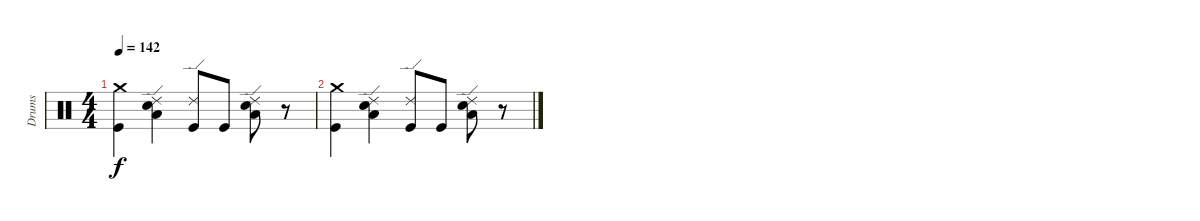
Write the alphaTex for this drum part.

\track ("Drums" "Drums") {instrument percussion}
\staff {score}
\articulation defaults
\ts (4 4)
\tempo 142
\clef neutral
\ks c
("Crash medium (hit)" "Kick (hit)").4{dy f} ("Ride (edge) 2" "Low Tom (hit)" "Electric Snare (hit)").4 ("Ride (edge) 2" "Kick (hit)").8 "Kick (hit)".8 ("Ride (edge) 2" "Low Tom (hit)" "Electric Snare (hit)").8 r.8 |
("Crash medium (hit)" "Kick (hit)").4 ("Ride (edge) 2" "Low Tom (hit)" "Electric Snare (hit)").4 ("Ride (edge) 2" "Kick (hit)").8 "Kick (hit)".8 ("Ride (edge) 2" "Low Tom (hit)" "Electric Snare (hit)").8 r.8
